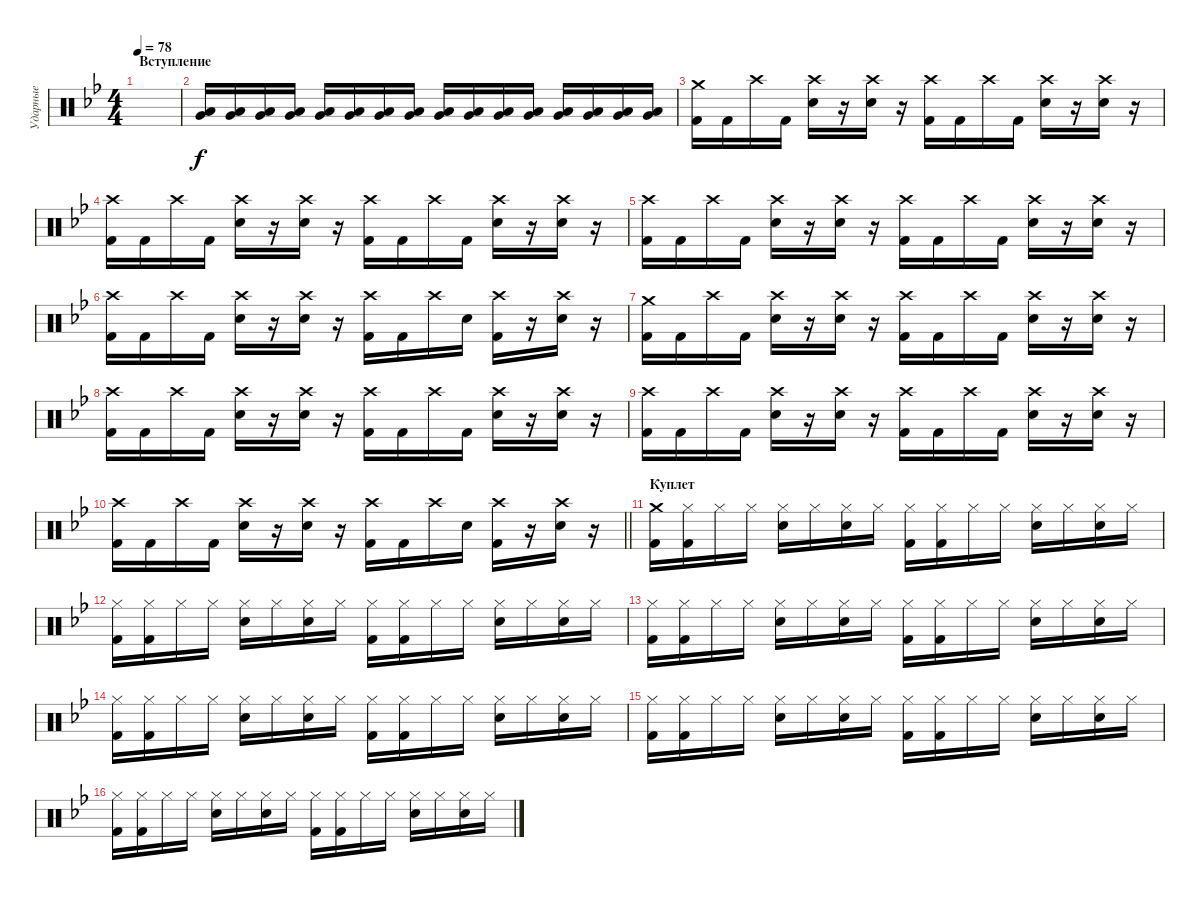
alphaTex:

\track ("Ударные" "Ударные") {instrument percussion}
\staff {score}
\articulation defaults
\ts (4 4)
\section ("" "Вступление")
\tempo 78
\clef neutral
\ks gminor
|
("Low Floor Tom (hit)" "Very Low Tom (hit)").16{volume 13} ("Low Floor Tom (hit)" "Very Low Tom (hit)").16 ("Low Floor Tom (hit)" "Very Low Tom (hit)").16 ("Low Floor Tom (hit)" "Very Low Tom (hit)").16 ("Low Floor Tom (hit)" "Very Low Tom (hit)").16 ("Low Floor Tom (hit)" "Very Low Tom (hit)").16 ("Low Floor Tom (hit)" "Very Low Tom (hit)").16 ("Low Floor Tom (hit)" "Very Low Tom (hit)").16 ("Low Floor Tom (hit)" "Very Low Tom (hit)").16 ("Low Floor Tom (hit)" "Very Low Tom (hit)").16 ("Low Floor Tom (hit)" "Very Low Tom (hit)").16 ("Low Floor Tom (hit)" "Very Low Tom (hit)").16 ("Low Floor Tom (hit)" "Very Low Tom (hit)").16 ("Low Floor Tom (hit)" "Very Low Tom (hit)").16 ("Low Floor Tom (hit)" "Very Low Tom (hit)").16 ("Low Floor Tom (hit)" "Very Low Tom (hit)").16 |
("Crash medium (hit)" "Kick (hit) 2").16 "Kick (hit) 2".16 "Crash high (hit)".16 "Kick (hit) 2".16 ("Crash high (hit)" "Electric Snare (hit)").16 r.16 ("Crash high (hit)" "Electric Snare (hit)").16 r.16 ("Crash high (hit)" "Kick (hit) 2").16 "Kick (hit) 2".16 "Crash high (hit)".16 "Kick (hit) 2".16 ("Crash high (hit)" "Electric Snare (hit)").16 r.16 ("Crash high (hit)" "Electric Snare (hit)").16 r.16 |
("Crash high (hit)" "Kick (hit) 2").16 "Kick (hit) 2".16 "Crash high (hit)".16 "Kick (hit) 2".16 ("Crash high (hit)" "Electric Snare (hit)").16 r.16 ("Crash high (hit)" "Electric Snare (hit)").16 r.16 ("Crash high (hit)" "Kick (hit) 2").16 "Kick (hit) 2".16 "Crash high (hit)".16 "Kick (hit) 2".16 ("Crash high (hit)" "Electric Snare (hit)").16 r.16 ("Crash high (hit)" "Electric Snare (hit)").16 r.16 |
("Crash high (hit)" "Kick (hit) 2").16 "Kick (hit) 2".16 "Crash high (hit)".16 "Kick (hit) 2".16 ("Crash high (hit)" "Electric Snare (hit)").16 r.16 ("Crash high (hit)" "Electric Snare (hit)").16 r.16 ("Crash high (hit)" "Kick (hit) 2").16 "Kick (hit) 2".16 "Crash high (hit)".16 "Kick (hit) 2".16 ("Crash high (hit)" "Electric Snare (hit)").16 r.16 ("Crash high (hit)" "Electric Snare (hit)").16 r.16 |
("Crash high (hit)" "Kick (hit) 2").16 "Kick (hit) 2".16 "Crash high (hit)".16 "Kick (hit) 2".16 ("Crash high (hit)" "Electric Snare (hit)").16 r.16 ("Crash high (hit)" "Electric Snare (hit)").16 r.16 ("Crash high (hit)" "Kick (hit) 2").16 "Kick (hit) 2".16 "Crash high (hit)".16 "Electric Snare (hit)".16 ("Crash high (hit)" "Kick (hit) 2").16 r.16 ("Crash high (hit)" "Electric Snare (hit)").16 r.16 |
("Crash medium (hit)" "Kick (hit) 2").16 "Kick (hit) 2".16 "Crash high (hit)".16 "Kick (hit) 2".16 ("Crash high (hit)" "Electric Snare (hit)").16 r.16 ("Crash high (hit)" "Electric Snare (hit)").16 r.16 ("Crash high (hit)" "Kick (hit) 2").16 "Kick (hit) 2".16 "Crash high (hit)".16 "Kick (hit) 2".16 ("Crash high (hit)" "Electric Snare (hit)").16 r.16 ("Crash high (hit)" "Electric Snare (hit)").16 r.16 |
("Crash high (hit)" "Kick (hit) 2").16 "Kick (hit) 2".16 "Crash high (hit)".16 "Kick (hit) 2".16 ("Crash high (hit)" "Electric Snare (hit)").16 r.16 ("Crash high (hit)" "Electric Snare (hit)").16 r.16 ("Crash high (hit)" "Kick (hit) 2").16 "Kick (hit) 2".16 "Crash high (hit)".16 "Kick (hit) 2".16 ("Crash high (hit)" "Electric Snare (hit)").16 r.16 ("Crash high (hit)" "Electric Snare (hit)").16 r.16 |
("Crash high (hit)" "Kick (hit) 2").16 "Kick (hit) 2".16 "Crash high (hit)".16 "Kick (hit) 2".16 ("Crash high (hit)" "Electric Snare (hit)").16 r.16 ("Crash high (hit)" "Electric Snare (hit)").16 r.16 ("Crash high (hit)" "Kick (hit) 2").16 "Kick (hit) 2".16 "Crash high (hit)".16 "Kick (hit) 2".16 ("Crash high (hit)" "Electric Snare (hit)").16 r.16 ("Crash high (hit)" "Electric Snare (hit)").16 r.16 |
\barLineRight lightlight
("Crash high (hit)" "Kick (hit) 2").16 "Kick (hit) 2".16 "Crash high (hit)".16 "Kick (hit) 2".16 ("Crash high (hit)" "Electric Snare (hit)").16 r.16 ("Crash high (hit)" "Electric Snare (hit)").16 r.16 ("Crash high (hit)" "Kick (hit) 2").16 "Kick (hit) 2".16 "Crash high (hit)".16 "Electric Snare (hit)".16 ("Crash high (hit)" "Kick (hit) 2").16 r.16 ("Crash high (hit)" "Electric Snare (hit)").16 r.16 |
\section ("" "Куплет")
("Crash medium (hit)" "Kick (hit) 2").16 ("Hi-Hat (closed)" "Kick (hit) 2").16 "Hi-Hat (closed)".16 "Hi-Hat (closed)".16 ("Hi-Hat (closed)" "Electric Snare (hit)").16 "Hi-Hat (closed)".16 ("Hi-Hat (closed)" "Electric Snare (hit)").16 "Hi-Hat (closed)".16 ("Hi-Hat (closed)" "Kick (hit) 2").16 ("Hi-Hat (closed)" "Kick (hit) 2").16 "Hi-Hat (closed)".16 "Hi-Hat (closed)".16 ("Hi-Hat (closed)" "Electric Snare (hit)").16 "Hi-Hat (closed)".16 ("Hi-Hat (closed)" "Electric Snare (hit)").16 "Hi-Hat (closed)".16 |
("Hi-Hat (closed)" "Kick (hit) 2").16 ("Hi-Hat (closed)" "Kick (hit) 2").16 "Hi-Hat (closed)".16 "Hi-Hat (closed)".16 ("Hi-Hat (closed)" "Electric Snare (hit)").16 "Hi-Hat (closed)".16 ("Hi-Hat (closed)" "Electric Snare (hit)").16 "Hi-Hat (closed)".16 ("Hi-Hat (closed)" "Kick (hit) 2").16 ("Hi-Hat (closed)" "Kick (hit) 2").16 "Hi-Hat (closed)".16 "Hi-Hat (closed)".16 ("Hi-Hat (closed)" "Electric Snare (hit)").16 "Hi-Hat (closed)".16 ("Hi-Hat (closed)" "Electric Snare (hit)").16 "Hi-Hat (closed)".16 |
("Hi-Hat (closed)" "Kick (hit) 2").16 ("Hi-Hat (closed)" "Kick (hit) 2").16 "Hi-Hat (closed)".16 "Hi-Hat (closed)".16 ("Hi-Hat (closed)" "Electric Snare (hit)").16 "Hi-Hat (closed)".16 ("Hi-Hat (closed)" "Electric Snare (hit)").16 "Hi-Hat (closed)".16 ("Hi-Hat (closed)" "Kick (hit) 2").16 ("Hi-Hat (closed)" "Kick (hit) 2").16 "Hi-Hat (closed)".16 "Hi-Hat (closed)".16 ("Hi-Hat (closed)" "Electric Snare (hit)").16 "Hi-Hat (closed)".16 ("Hi-Hat (closed)" "Electric Snare (hit)").16 "Hi-Hat (closed)".16 |
("Hi-Hat (closed)" "Kick (hit) 2").16 ("Hi-Hat (closed)" "Kick (hit) 2").16 "Hi-Hat (closed)".16 "Hi-Hat (closed)".16 ("Hi-Hat (closed)" "Electric Snare (hit)").16 "Hi-Hat (closed)".16 ("Hi-Hat (closed)" "Electric Snare (hit)").16 "Hi-Hat (closed)".16 ("Hi-Hat (closed)" "Kick (hit) 2").16 ("Hi-Hat (closed)" "Kick (hit) 2").16 "Hi-Hat (closed)".16 "Hi-Hat (closed)".16 ("Hi-Hat (closed)" "Electric Snare (hit)").16 "Hi-Hat (closed)".16 ("Hi-Hat (closed)" "Electric Snare (hit)").16 "Hi-Hat (closed)".16 |
("Hi-Hat (closed)" "Kick (hit) 2").16 ("Hi-Hat (closed)" "Kick (hit) 2").16 "Hi-Hat (closed)".16 "Hi-Hat (closed)".16 ("Hi-Hat (closed)" "Electric Snare (hit)").16 "Hi-Hat (closed)".16 ("Hi-Hat (closed)" "Electric Snare (hit)").16 "Hi-Hat (closed)".16 ("Hi-Hat (closed)" "Kick (hit) 2").16 ("Hi-Hat (closed)" "Kick (hit) 2").16 "Hi-Hat (closed)".16 "Hi-Hat (closed)".16 ("Hi-Hat (closed)" "Electric Snare (hit)").16 "Hi-Hat (closed)".16 ("Hi-Hat (closed)" "Electric Snare (hit)").16 "Hi-Hat (closed)".16 |
("Hi-Hat (closed)" "Kick (hit) 2").16 ("Hi-Hat (closed)" "Kick (hit) 2").16 "Hi-Hat (closed)".16 "Hi-Hat (closed)".16 ("Hi-Hat (closed)" "Electric Snare (hit)").16 "Hi-Hat (closed)".16 ("Hi-Hat (closed)" "Electric Snare (hit)").16 "Hi-Hat (closed)".16 ("Hi-Hat (closed)" "Kick (hit) 2").16 ("Hi-Hat (closed)" "Kick (hit) 2").16 "Hi-Hat (closed)".16 "Hi-Hat (closed)".16 ("Hi-Hat (closed)" "Electric Snare (hit)").16 "Hi-Hat (closed)".16 ("Hi-Hat (closed)" "Electric Snare (hit)").16 "Hi-Hat (closed)".16
